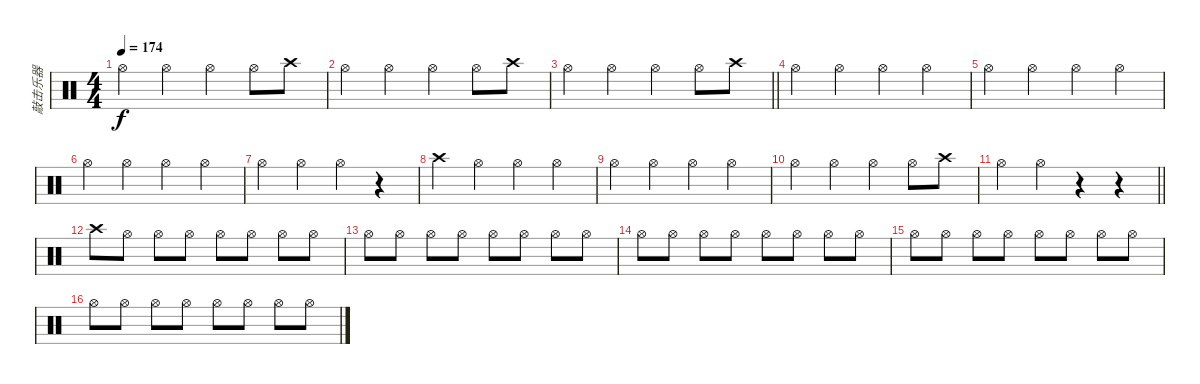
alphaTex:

\track ("敲击乐器" "敲击乐器") {instrument percussion}
\staff {score}
\articulation defaults
\ts (4 4)
\tempo 174
\clef neutral
\ks c "Hi-Hat (open)".4{dy f} "Hi-Hat (open)".4 "Hi-Hat (open)".4 "Hi-Hat (open)".8 "Crash high (hit)".8
|
"Hi-Hat (open)".4 "Hi-Hat (open)".4 "Hi-Hat (open)".4 "Hi-Hat (open)".8 "Crash high (hit)".8 |
\barLineRight lightlight "Hi-Hat (open)".4 "Hi-Hat (open)".4 "Hi-Hat (open)".4 "Hi-Hat (open)".8 "Crash high (hit)".8
|
"Hi-Hat (open)".4 "Hi-Hat (open)".4 "Hi-Hat (open)".4 "Hi-Hat (open)".4 |
"Hi-Hat (open)".4 "Hi-Hat (open)".4 "Hi-Hat (open)".4 "Hi-Hat (open)".4 |
"Hi-Hat (open)".4 "Hi-Hat (open)".4 "Hi-Hat (open)".4 "Hi-Hat (open)".4 |
"Hi-Hat (open)".4 "Hi-Hat (open)".4 "Hi-Hat (open)".4 r.4 |
"Crash high (hit)".4 "Hi-Hat (open)".4 "Hi-Hat (open)".4 "Hi-Hat (open)".4 |
"Hi-Hat (open)".4 "Hi-Hat (open)".4 "Hi-Hat (open)".4 "Hi-Hat (open)".4 |
"Hi-Hat (open)".4 "Hi-Hat (open)".4 "Hi-Hat (open)".4 "Hi-Hat (open)".8 "Crash high (hit)".8 |
\barLineRight lightlight "Hi-Hat (open)".4 "Hi-Hat (open)".4
r.4 r.4 |
"Crash high (hit)".8 "Hi-Hat (open)".8 "Hi-Hat (open)".8 "Hi-Hat (open)".8 "Hi-Hat (open)".8 "Hi-Hat (open)".8 "Hi-Hat (open)".8 "Hi-Hat (open)".8 |
"Hi-Hat (open)".8 "Hi-Hat (open)".8 "Hi-Hat (open)".8 "Hi-Hat (open)".8 "Hi-Hat (open)".8 "Hi-Hat (open)".8 "Hi-Hat (open)".8 "Hi-Hat (open)".8 |
"Hi-Hat (open)".8 "Hi-Hat (open)".8 "Hi-Hat (open)".8 "Hi-Hat (open)".8 "Hi-Hat (open)".8 "Hi-Hat (open)".8 "Hi-Hat (open)".8 "Hi-Hat (open)".8 |
"Hi-Hat (open)".8 "Hi-Hat (open)".8 "Hi-Hat (open)".8 "Hi-Hat (open)".8 "Hi-Hat (open)".8 "Hi-Hat (open)".8 "Hi-Hat (open)".8 "Hi-Hat (open)".8 |
"Hi-Hat (open)".8 "Hi-Hat (open)".8 "Hi-Hat (open)".8 "Hi-Hat (open)".8 "Hi-Hat (open)".8 "Hi-Hat (open)".8 "Hi-Hat (open)".8 "Hi-Hat (open)".8
